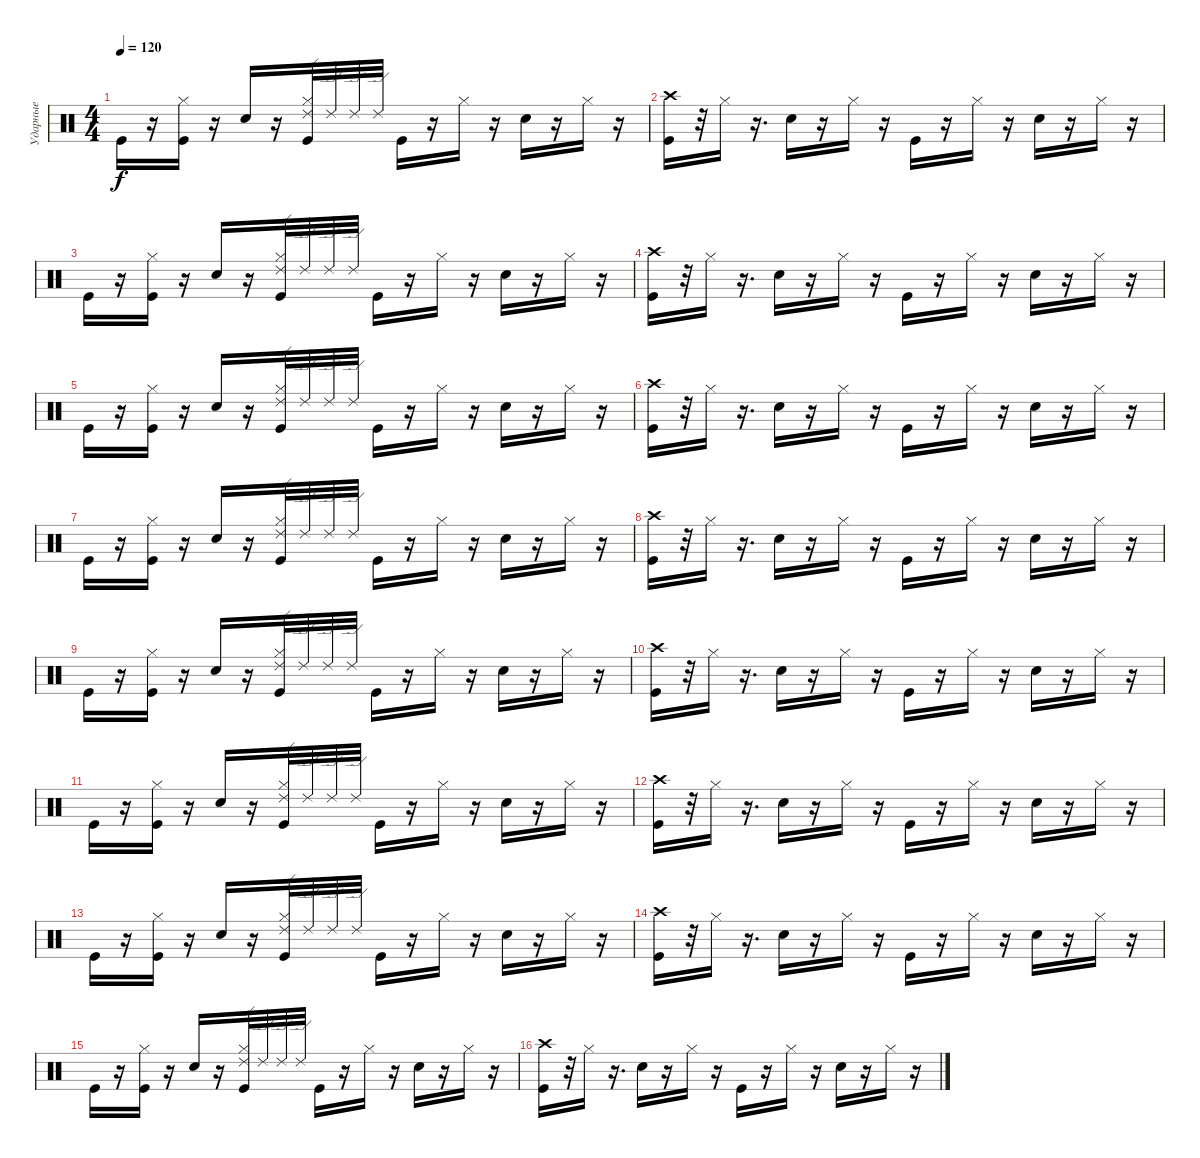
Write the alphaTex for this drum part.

\track ("Ударные" "Ударные") {instrument percussion}
\staff {score}
\articulation defaults
\ts (4 4)
\tempo 120
\clef neutral
\ks c "Kick (hit)".16{dy f}
r.16 ("Hi-Hat (closed)" "Kick (hit)").16 r.16 "Electric Snare (hit)".16 r.16 ("Hi-Hat (closed)" "Kick (hit)" "Ride (edge) 2").32 "Ride (edge) 2".32 "Ride (edge) 2".32 "Ride (edge) 2".32 "Kick (hit)".16 r.16 "Hi-Hat (closed)".16 r.16 "Electric Snare (hit)".16 r.16 "Hi-Hat (closed)".16 r.16 |
("Crash high (hit)" "Kick (hit)").16 r.32 "Hi-Hat (closed)".16 r.16{d} "Electric Snare (hit)".16 r.16 "Hi-Hat (closed)".16 r.16 "Kick (hit)".16 r.16 "Hi-Hat (closed)".16 r.16 "Electric Snare (hit)".16 r.16 "Hi-Hat (closed)".16 r.16 |
"Kick (hit)".16 r.16 ("Hi-Hat (closed)" "Kick (hit)").16 r.16 "Electric Snare (hit)".16 r.16 ("Hi-Hat (closed)" "Kick (hit)" "Ride (edge) 2").32 "Ride (edge) 2".32 "Ride (edge) 2".32 "Ride (edge) 2".32 "Kick (hit)".16 r.16 "Hi-Hat (closed)".16 r.16 "Electric Snare (hit)".16 r.16 "Hi-Hat (closed)".16 r.16 |
("Crash high (hit)" "Kick (hit)").16 r.32 "Hi-Hat (closed)".16 r.16{d} "Electric Snare (hit)".16 r.16 "Hi-Hat (closed)".16 r.16 "Kick (hit)".16 r.16 "Hi-Hat (closed)".16 r.16 "Electric Snare (hit)".16 r.16 "Hi-Hat (closed)".16 r.16 |
"Kick (hit)".16 r.16 ("Hi-Hat (closed)" "Kick (hit)").16 r.16 "Electric Snare (hit)".16 r.16 ("Hi-Hat (closed)" "Kick (hit)" "Ride (edge) 2").32 "Ride (edge) 2".32 "Ride (edge) 2".32 "Ride (edge) 2".32 "Kick (hit)".16 r.16 "Hi-Hat (closed)".16 r.16 "Electric Snare (hit)".16 r.16 "Hi-Hat (closed)".16 r.16 |
("Crash high (hit)" "Kick (hit)").16 r.32 "Hi-Hat (closed)".16 r.16{d} "Electric Snare (hit)".16 r.16 "Hi-Hat (closed)".16 r.16 "Kick (hit)".16 r.16 "Hi-Hat (closed)".16 r.16 "Electric Snare (hit)".16 r.16 "Hi-Hat (closed)".16 r.16 |
"Kick (hit)".16 r.16 ("Hi-Hat (closed)" "Kick (hit)").16 r.16 "Electric Snare (hit)".16 r.16 ("Hi-Hat (closed)" "Kick (hit)" "Ride (edge) 2").32 "Ride (edge) 2".32 "Ride (edge) 2".32 "Ride (edge) 2".32 "Kick (hit)".16 r.16 "Hi-Hat (closed)".16 r.16 "Electric Snare (hit)".16 r.16 "Hi-Hat (closed)".16 r.16 |
("Crash high (hit)" "Kick (hit)").16 r.32 "Hi-Hat (closed)".16 r.16{d} "Electric Snare (hit)".16 r.16 "Hi-Hat (closed)".16 r.16 "Kick (hit)".16 r.16 "Hi-Hat (closed)".16 r.16 "Electric Snare (hit)".16 r.16 "Hi-Hat (closed)".16 r.16 |
"Kick (hit)".16 r.16 ("Hi-Hat (closed)" "Kick (hit)").16 r.16 "Electric Snare (hit)".16 r.16 ("Hi-Hat (closed)" "Kick (hit)" "Ride (edge) 2").32 "Ride (edge) 2".32 "Ride (edge) 2".32 "Ride (edge) 2".32 "Kick (hit)".16 r.16 "Hi-Hat (closed)".16 r.16 "Electric Snare (hit)".16 r.16 "Hi-Hat (closed)".16 r.16 |
("Crash high (hit)" "Kick (hit)").16 r.32 "Hi-Hat (closed)".16 r.16{d} "Electric Snare (hit)".16 r.16 "Hi-Hat (closed)".16 r.16 "Kick (hit)".16 r.16 "Hi-Hat (closed)".16 r.16 "Electric Snare (hit)".16 r.16 "Hi-Hat (closed)".16 r.16 |
"Kick (hit)".16 r.16 ("Hi-Hat (closed)" "Kick (hit)").16 r.16 "Electric Snare (hit)".16 r.16 ("Hi-Hat (closed)" "Kick (hit)" "Ride (edge) 2").32 "Ride (edge) 2".32 "Ride (edge) 2".32 "Ride (edge) 2".32 "Kick (hit)".16 r.16 "Hi-Hat (closed)".16 r.16 "Electric Snare (hit)".16 r.16 "Hi-Hat (closed)".16 r.16 |
("Crash high (hit)" "Kick (hit)").16 r.32 "Hi-Hat (closed)".16 r.16{d} "Electric Snare (hit)".16 r.16 "Hi-Hat (closed)".16 r.16 "Kick (hit)".16 r.16 "Hi-Hat (closed)".16 r.16 "Electric Snare (hit)".16 r.16 "Hi-Hat (closed)".16 r.16 |
"Kick (hit)".16 r.16 ("Hi-Hat (closed)" "Kick (hit)").16 r.16 "Electric Snare (hit)".16 r.16 ("Hi-Hat (closed)" "Kick (hit)" "Ride (edge) 2").32 "Ride (edge) 2".32 "Ride (edge) 2".32 "Ride (edge) 2".32 "Kick (hit)".16 r.16 "Hi-Hat (closed)".16 r.16 "Electric Snare (hit)".16 r.16 "Hi-Hat (closed)".16 r.16 |
("Crash high (hit)" "Kick (hit)").16 r.32 "Hi-Hat (closed)".16 r.16{d} "Electric Snare (hit)".16 r.16 "Hi-Hat (closed)".16 r.16 "Kick (hit)".16 r.16 "Hi-Hat (closed)".16 r.16 "Electric Snare (hit)".16 r.16 "Hi-Hat (closed)".16 r.16 |
"Kick (hit)".16 r.16 ("Hi-Hat (closed)" "Kick (hit)").16 r.16 "Electric Snare (hit)".16 r.16 ("Hi-Hat (closed)" "Kick (hit)" "Ride (edge) 2").32 "Ride (edge) 2".32 "Ride (edge) 2".32 "Ride (edge) 2".32 "Kick (hit)".16 r.16 "Hi-Hat (closed)".16 r.16 "Electric Snare (hit)".16 r.16 "Hi-Hat (closed)".16 r.16 |
("Crash high (hit)" "Kick (hit)").16 r.32 "Hi-Hat (closed)".16 r.16{d} "Electric Snare (hit)".16 r.16 "Hi-Hat (closed)".16 r.16 "Kick (hit)".16 r.16 "Hi-Hat (closed)".16 r.16 "Electric Snare (hit)".16 r.16 "Hi-Hat (closed)".16 r.16
